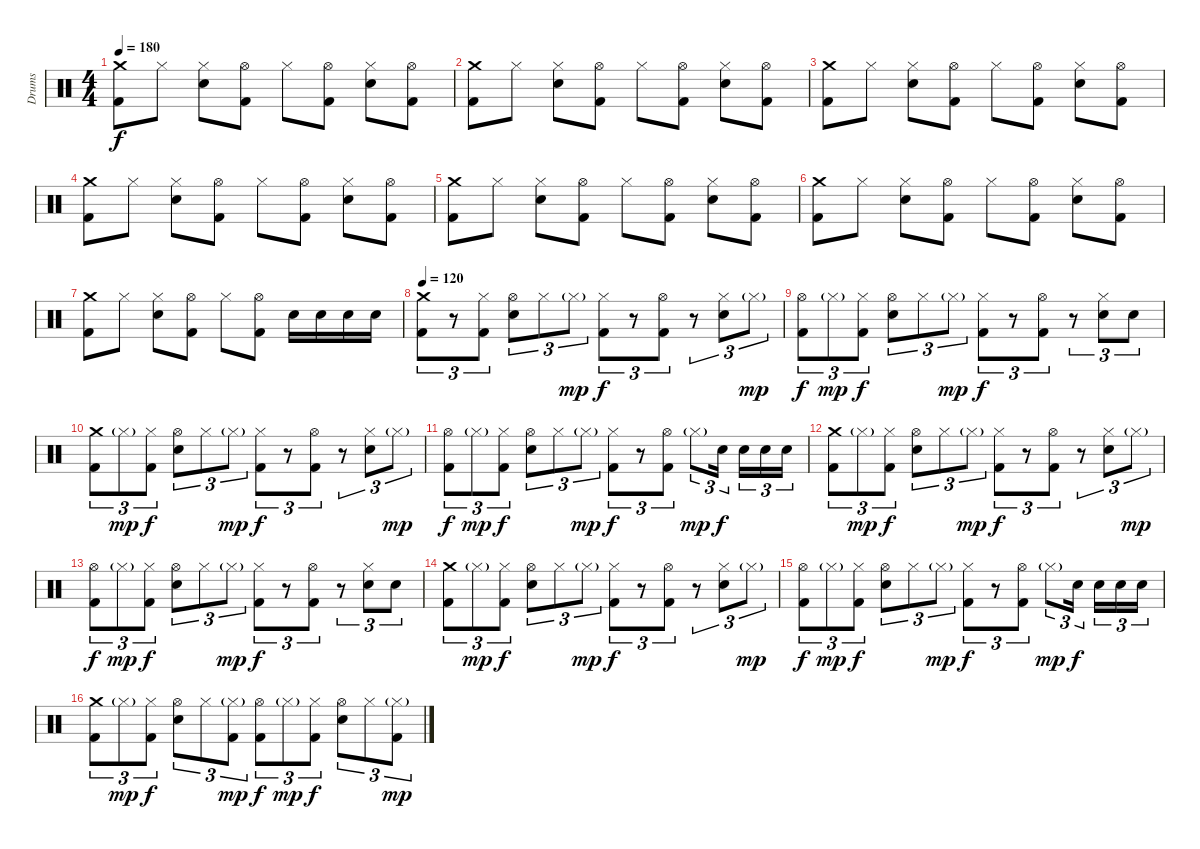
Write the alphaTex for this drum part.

\track ("Drums" "Drums") {instrument percussion}
\staff {score}
\articulation defaults
\ts (4 4)
\tempo 180
\clef neutral
\ks c
("Crash medium (hit)" "Kick (hit) 2").8{dy f} "Hi-Hat (closed)".8 ("Hi-Hat (closed)" "Electric Snare (hit)").8 ("Hi-Hat (open)" "Kick (hit) 2").8 "Hi-Hat (closed)".8 ("Hi-Hat (open)" "Kick (hit) 2").8 ("Hi-Hat (closed)" "Electric Snare (hit)").8 ("Hi-Hat (open)" "Kick (hit) 2").8 |
("Crash medium (hit)" "Kick (hit) 2").8 "Hi-Hat (closed)".8 ("Hi-Hat (closed)" "Electric Snare (hit)").8 ("Hi-Hat (open)" "Kick (hit) 2").8 "Hi-Hat (closed)".8 ("Hi-Hat (open)" "Kick (hit) 2").8 ("Hi-Hat (closed)" "Electric Snare (hit)").8 ("Hi-Hat (open)" "Kick (hit) 2").8 |
("Crash medium (hit)" "Kick (hit) 2").8 "Hi-Hat (closed)".8 ("Hi-Hat (closed)" "Electric Snare (hit)").8 ("Hi-Hat (open)" "Kick (hit) 2").8 "Hi-Hat (closed)".8 ("Hi-Hat (open)" "Kick (hit) 2").8 ("Hi-Hat (closed)" "Electric Snare (hit)").8 ("Hi-Hat (open)" "Kick (hit) 2").8 |
("Crash medium (hit)" "Kick (hit) 2").8 "Hi-Hat (closed)".8 ("Hi-Hat (closed)" "Electric Snare (hit)").8 ("Hi-Hat (open)" "Kick (hit) 2").8 "Hi-Hat (closed)".8 ("Hi-Hat (open)" "Kick (hit) 2").8 ("Hi-Hat (closed)" "Electric Snare (hit)").8 ("Hi-Hat (open)" "Kick (hit) 2").8 |
("Crash medium (hit)" "Kick (hit) 2").8 "Hi-Hat (closed)".8 ("Hi-Hat (closed)" "Electric Snare (hit)").8 ("Hi-Hat (open)" "Kick (hit) 2").8 "Hi-Hat (closed)".8 ("Hi-Hat (open)" "Kick (hit) 2").8 ("Hi-Hat (closed)" "Electric Snare (hit)").8 ("Hi-Hat (open)" "Kick (hit) 2").8 |
("Crash medium (hit)" "Kick (hit) 2").8 "Hi-Hat (closed)".8 ("Hi-Hat (closed)" "Electric Snare (hit)").8 ("Hi-Hat (open)" "Kick (hit) 2").8 "Hi-Hat (closed)".8 ("Hi-Hat (open)" "Kick (hit) 2").8 ("Hi-Hat (closed)" "Electric Snare (hit)").8 ("Hi-Hat (open)" "Kick (hit) 2").8 |
("Crash medium (hit)" "Kick (hit) 2").8 "Hi-Hat (closed)".8 ("Hi-Hat (closed)" "Electric Snare (hit)").8 ("Hi-Hat (open)" "Kick (hit) 2").8 "Hi-Hat (closed)".8 ("Hi-Hat (open)" "Kick (hit) 2").8 "Electric Snare (hit)".16 "Electric Snare (hit)".16 "Electric Snare (hit)".16 "Electric Snare (hit)".16 |
\tempo 120
("Crash medium (hit)" "Kick (hit) 2").8{tu (3 2)} r.8{tu (3 2)} ("Hi-Hat (closed)" "Kick (hit) 2").8{tu (3 2)} ("Hi-Hat (open)" "Electric Snare (hit)").8{tu (3 2)} "Hi-Hat (closed)".8{tu (3 2)} "Hi-Hat (closed)"{g}.8{tu (3 2) dy mp} ("Hi-Hat (closed)" "Kick (hit) 2").8{tu (3 2) dy f} r.8{tu (3 2)} ("Hi-Hat (open)" "Kick (hit) 2").8{tu (3 2)} r.8{tu (3 2)} ("Hi-Hat (closed)" "Electric Snare (hit)").8{tu (3 2)} "Hi-Hat (closed)"{g}.8{tu (3 2) dy mp} |
("Hi-Hat (open)" "Kick (hit) 2").8{tu (3 2) dy f} "Hi-Hat (closed)"{g}.8{tu (3 2) dy mp} ("Hi-Hat (closed)" "Kick (hit) 2").8{tu (3 2) dy f} ("Hi-Hat (open)" "Electric Snare (hit)").8{tu (3 2)} "Hi-Hat (closed)".8{tu (3 2)} "Hi-Hat (closed)"{g}.8{tu (3 2) dy mp} ("Hi-Hat (closed)" "Kick (hit) 2").8{tu (3 2) dy f} r.8{tu (3 2)} ("Hi-Hat (open)" "Kick (hit) 2").8{tu (3 2)} r.8{tu (3 2)} ("Hi-Hat (closed)" "Electric Snare (hit)").8{tu (3 2)} "Electric Snare (hit)".8{tu (3 2)} |
("Crash medium (hit)" "Kick (hit) 2").8{tu (3 2)} "Hi-Hat (closed)"{g}.8{tu (3 2) dy mp} ("Hi-Hat (closed)" "Kick (hit) 2").8{tu (3 2) dy f} ("Hi-Hat (open)" "Electric Snare (hit)").8{tu (3 2)} "Hi-Hat (closed)".8{tu (3 2)} "Hi-Hat (closed)"{g}.8{tu (3 2) dy mp} ("Hi-Hat (closed)" "Kick (hit) 2").8{tu (3 2) dy f} r.8{tu (3 2)} ("Hi-Hat (open)" "Kick (hit) 2").8{tu (3 2)} r.8{tu (3 2)} ("Hi-Hat (closed)" "Electric Snare (hit)").8{tu (3 2)} "Hi-Hat (closed)"{g}.8{tu (3 2) dy mp} |
("Hi-Hat (open)" "Kick (hit) 2").8{tu (3 2) dy f} "Hi-Hat (closed)"{g}.8{tu (3 2) dy mp} ("Hi-Hat (closed)" "Kick (hit) 2").8{tu (3 2) dy f} ("Hi-Hat (open)" "Electric Snare (hit)").8{tu (3 2)} "Hi-Hat (closed)".8{tu (3 2)} "Hi-Hat (closed)"{g}.8{tu (3 2) dy mp} ("Hi-Hat (closed)" "Kick (hit) 2").8{tu (3 2) dy f} r.8{tu (3 2)} ("Hi-Hat (open)" "Kick (hit) 2").8{tu (3 2)} "Hi-Hat (closed)"{g}.8{tu (3 2) dy mp} "Electric Snare (hit)".16{tu (3 2) dy f beam splitsecondary} "Electric Snare (hit)".16{tu (3 2)} "Electric Snare (hit)".16{tu (3 2)} "Electric Snare (hit)".16{tu (3 2)} |
("Crash medium (hit)" "Kick (hit) 2").8{tu (3 2)} "Hi-Hat (closed)"{g}.8{tu (3 2) dy mp} ("Hi-Hat (closed)" "Kick (hit) 2").8{tu (3 2) dy f} ("Hi-Hat (open)" "Electric Snare (hit)").8{tu (3 2)} "Hi-Hat (closed)".8{tu (3 2)} "Hi-Hat (closed)"{g}.8{tu (3 2) dy mp} ("Hi-Hat (closed)" "Kick (hit) 2").8{tu (3 2) dy f} r.8{tu (3 2)} ("Hi-Hat (open)" "Kick (hit) 2").8{tu (3 2)} r.8{tu (3 2)} ("Hi-Hat (closed)" "Electric Snare (hit)").8{tu (3 2)} "Hi-Hat (closed)"{g}.8{tu (3 2) dy mp} |
("Hi-Hat (open)" "Kick (hit) 2").8{tu (3 2) dy f} "Hi-Hat (closed)"{g}.8{tu (3 2) dy mp} ("Hi-Hat (closed)" "Kick (hit) 2").8{tu (3 2) dy f} ("Hi-Hat (open)" "Electric Snare (hit)").8{tu (3 2)} "Hi-Hat (closed)".8{tu (3 2)} "Hi-Hat (closed)"{g}.8{tu (3 2) dy mp} ("Hi-Hat (closed)" "Kick (hit) 2").8{tu (3 2) dy f} r.8{tu (3 2)} ("Hi-Hat (open)" "Kick (hit) 2").8{tu (3 2)} r.8{tu (3 2)} ("Hi-Hat (closed)" "Electric Snare (hit)").8{tu (3 2)} "Electric Snare (hit)".8{tu (3 2)} |
("Crash medium (hit)" "Kick (hit) 2").8{tu (3 2)} "Hi-Hat (closed)"{g}.8{tu (3 2) dy mp} ("Hi-Hat (closed)" "Kick (hit) 2").8{tu (3 2) dy f} ("Hi-Hat (open)" "Electric Snare (hit)").8{tu (3 2)} "Hi-Hat (closed)".8{tu (3 2)} "Hi-Hat (closed)"{g}.8{tu (3 2) dy mp} ("Hi-Hat (closed)" "Kick (hit) 2").8{tu (3 2) dy f} r.8{tu (3 2)} ("Hi-Hat (open)" "Kick (hit) 2").8{tu (3 2)} r.8{tu (3 2)} ("Hi-Hat (closed)" "Electric Snare (hit)").8{tu (3 2)} "Hi-Hat (closed)"{g}.8{tu (3 2) dy mp} |
("Hi-Hat (open)" "Kick (hit) 2").8{tu (3 2) dy f} "Hi-Hat (closed)"{g}.8{tu (3 2) dy mp} ("Hi-Hat (closed)" "Kick (hit) 2").8{tu (3 2) dy f} ("Hi-Hat (open)" "Electric Snare (hit)").8{tu (3 2)} "Hi-Hat (closed)".8{tu (3 2)} "Hi-Hat (closed)"{g}.8{tu (3 2) dy mp} ("Hi-Hat (closed)" "Kick (hit) 2").8{tu (3 2) dy f} r.8{tu (3 2)} ("Hi-Hat (open)" "Kick (hit) 2").8{tu (3 2)} "Hi-Hat (closed)"{g}.8{tu (3 2) dy mp} "Electric Snare (hit)".16{tu (3 2) dy f beam splitsecondary} "Electric Snare (hit)".16{tu (3 2)} "Electric Snare (hit)".16{tu (3 2)} "Electric Snare (hit)".16{tu (3 2)} |
("Crash medium (hit)" "Kick (hit) 2").8{tu (3 2)} "Hi-Hat (closed)"{g}.8{tu (3 2) dy mp} ("Hi-Hat (closed)" "Kick (hit) 2").8{tu (3 2) dy f} ("Hi-Hat (open)" "Electric Snare (hit)").8{tu (3 2)} "Hi-Hat (closed)".8{tu (3 2)} ("Hi-Hat (closed)"{g} "Kick (hit) 2").8{tu (3 2) dy mp} ("Hi-Hat (open)" "Kick (hit) 2").8{tu (3 2) dy f} "Hi-Hat (closed)"{g}.8{tu (3 2) dy mp} ("Hi-Hat (closed)" "Kick (hit) 2").8{tu (3 2) dy f} ("Hi-Hat (open)" "Electric Snare (hit)").8{tu (3 2)} "Hi-Hat (closed)".8{tu (3 2)} ("Hi-Hat (closed)"{g} "Kick (hit) 2").8{tu (3 2) dy mp}
